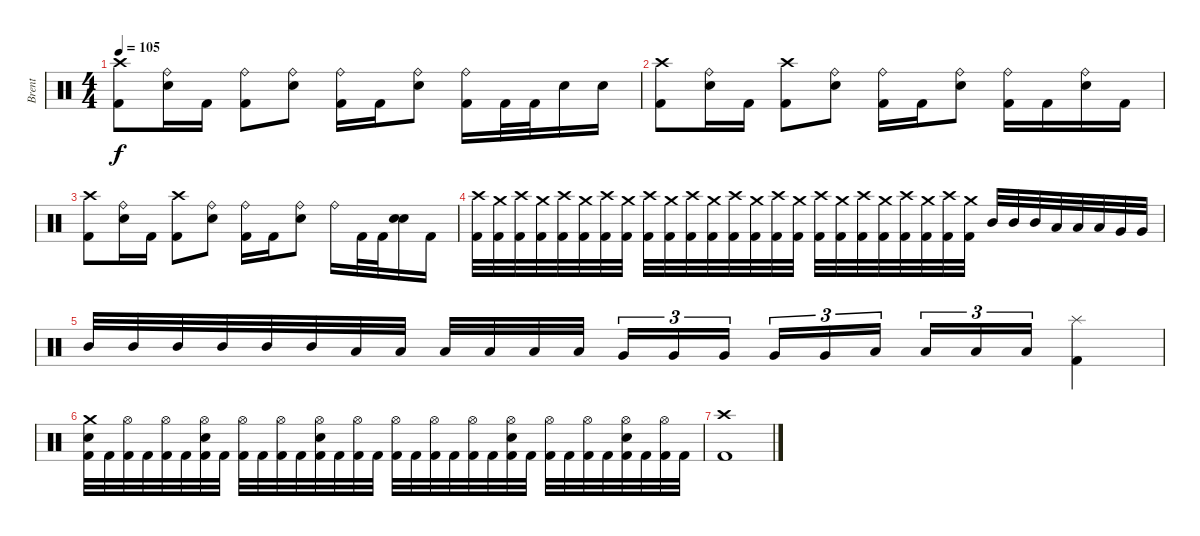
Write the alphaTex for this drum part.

\track ("Brent" "Brent") {instrument percussion}
\staff {score}
\articulation defaults
\ts (4 4)
\tempo 105
\clef neutral
\ks c
("Crash high (hit)" "Kick (hit) 2").8{dy f} ("Ride (bell)" "Snare (hit) 2").16 "Kick (hit) 2".16 ("Ride (bell)" "Kick (hit) 2").8 ("Ride (bell)" "Snare (hit) 2").8 ("Ride (bell)" "Kick (hit) 2").16 "Kick (hit) 2".16 ("Ride (bell)" "Snare (hit) 2").8 ("Ride (bell)" "Kick (hit) 2").16 "Kick (hit) 2".32 "Kick (hit) 2".32 "Snare (hit) 2".16 "Snare (hit) 2".16 |
("Crash high (hit)" "Kick (hit) 2").8 ("Ride (bell)" "Snare (hit) 2").16 "Kick (hit) 2".16 ("Crash high (hit)" "Kick (hit) 2").8 ("Ride (bell)" "Snare (hit) 2").8 ("Ride (bell)" "Kick (hit) 2").16 "Kick (hit) 2".16 ("Ride (bell)" "Snare (hit) 2").8 ("Ride (bell)" "Kick (hit) 2").16 "Kick (hit) 2".16 ("Ride (bell)" "Snare (hit) 2").16 "Kick (hit) 2".16 |
("Crash high (hit)" "Kick (hit) 2").8 ("Ride (bell)" "Snare (hit) 2").16 "Kick (hit) 2".16 ("Crash high (hit)" "Kick (hit) 2").8 ("Ride (bell)" "Snare (hit) 2").8 ("Ride (bell)" "Kick (hit) 2").16 "Kick (hit) 2".16 ("Ride (bell)" "Snare (hit) 2").8 "Ride (bell)".16 "Kick (hit) 2".32 "Kick (hit) 2".32 ("Snare (hit) 2" "Snare (hit) 2").16 "Kick (hit) 2".16 |
("Crash high (hit)" "Kick (hit) 2").32 ("Crash medium (hit)" "Kick (hit) 2").32 ("Crash high (hit)" "Kick (hit) 2").32 ("Crash medium (hit)" "Kick (hit) 2").32 ("Crash high (hit)" "Kick (hit) 2").32 ("Crash medium (hit)" "Kick (hit) 2").32 ("Crash high (hit)" "Kick (hit) 2").32 ("Crash medium (hit)" "Kick (hit) 2").32 ("Crash high (hit)" "Kick (hit) 2").32 ("Crash medium (hit)" "Kick (hit) 2").32 ("Crash high (hit)" "Kick (hit) 2").32 ("Crash medium (hit)" "Kick (hit) 2").32 ("Crash high (hit)" "Kick (hit) 2").32 ("Crash medium (hit)" "Kick (hit) 2").32 ("Crash high (hit)" "Kick (hit) 2").32 ("Crash medium (hit)" "Kick (hit) 2").32 ("Crash high (hit)" "Kick (hit) 2").32 ("Crash medium (hit)" "Kick (hit) 2").32 ("Crash high (hit)" "Kick (hit) 2").32 ("Crash medium (hit)" "Kick (hit) 2").32 ("Crash high (hit)" "Kick (hit) 2").32 ("Crash medium (hit)" "Kick (hit) 2").32 ("Crash high (hit)" "Kick (hit) 2").32 ("Crash medium (hit)" "Kick (hit) 2").32 "Mid Tom (hit)".32 "Mid Tom (hit)".32 "Mid Tom (hit)".32 "Low Tom (hit)".32 "Low Tom (hit)".32 "Low Tom (hit)".32 "Very Low Tom (hit)".32 "Very Low Tom (hit)".32 |
"Mid Tom (hit)".32 "Mid Tom (hit)".32 "Mid Tom (hit)".32 "Mid Tom (hit)".32 "Mid Tom (hit)".32 "Mid Tom (hit)".32 "Low Tom (hit)".32 "Low Tom (hit)".32 "Low Tom (hit)".32 "Low Tom (hit)".32 "Low Tom (hit)".32 "Low Tom (hit)".32 "Very Low Tom (hit)".16{tu (3 2)} "Very Low Tom (hit)".16{tu (3 2)} "Very Low Tom (hit)".16{tu (3 2)} "Very Low Tom (hit)".16{tu (3 2)} "Very Low Tom (hit)".16{tu (3 2)} "Low Floor Tom (hit)".16{tu (3 2)} "Low Floor Tom (hit)".16{tu (3 2)} "Low Floor Tom (hit)".16{tu (3 2)} "Low Floor Tom (hit)".16{tu (3 2)} ("Splash (hit)" "Kick (hit) 2").4 |
("Crash medium (hit)" "Snare (hit) 2" "Kick (hit) 2").32 "Kick (hit) 2".32 ("Hi-Hat (open)" "Kick (hit) 2").32 "Kick (hit) 2".32 ("Hi-Hat (open)" "Kick (hit) 2").32 "Kick (hit) 2".32 ("Hi-Hat (open)" "Snare (hit) 2" "Kick (hit) 2").32 "Kick (hit) 2".32 ("Hi-Hat (open)" "Kick (hit) 2").32 "Kick (hit) 2".32 ("Hi-Hat (open)" "Kick (hit) 2").32 "Kick (hit) 2".32 ("Hi-Hat (open)" "Snare (hit) 2" "Kick (hit) 2").32 "Kick (hit) 2".32 ("Hi-Hat (open)" "Kick (hit) 2").32 "Kick (hit) 2".32 ("Hi-Hat (open)" "Kick (hit) 2").32 "Kick (hit) 2".32 ("Hi-Hat (open)" "Kick (hit) 2").32 "Kick (hit) 2".32 ("Hi-Hat (open)" "Kick (hit) 2").32 "Kick (hit) 2".32 ("Hi-Hat (open)" "Snare (hit) 2" "Kick (hit) 2").32 "Kick (hit) 2".32 ("Hi-Hat (open)" "Kick (hit) 2").32 "Kick (hit) 2".32 ("Hi-Hat (open)" "Kick (hit) 2").32 "Kick (hit) 2".32 ("Hi-Hat (open)" "Snare (hit) 2" "Kick (hit) 2").32 "Kick (hit) 2".32 ("Hi-Hat (open)" "Kick (hit) 2").32 "Kick (hit) 2".32 |
("Crash high (hit)" "Kick (hit) 2").1
